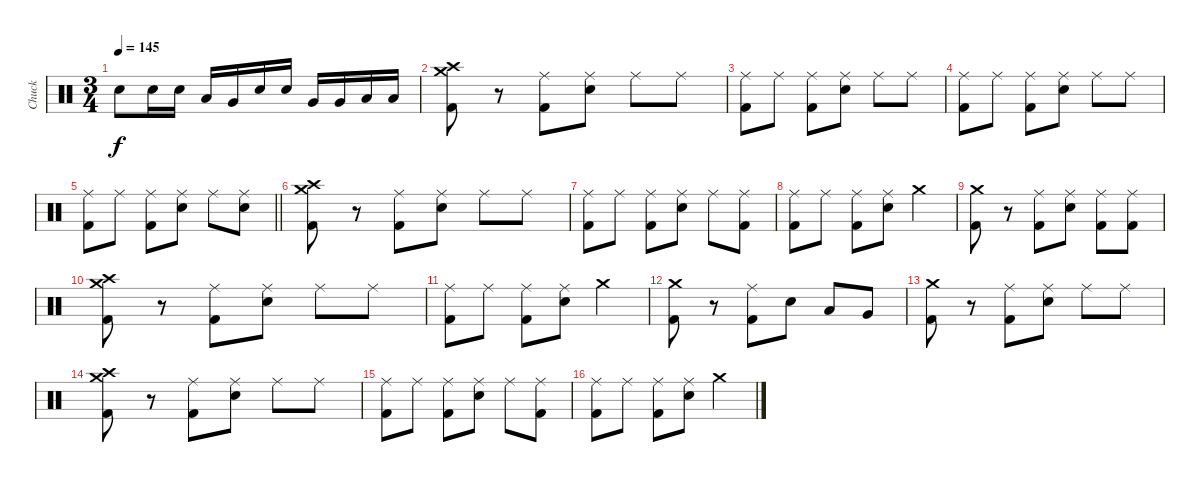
\track ("Chuck" "Chuck") {instrument percussion}
\staff {score}
\articulation defaults
\ts (3 4)
\tempo 145
\clef neutral
\ks c "Electric Snare (hit)".8{dy f} "Electric Snare (hit)".16 "Electric Snare (hit)".16 "Low Tom (hit)".16 "Very Low Tom (hit)".16 "Electric Snare (hit)".16 "Electric Snare (hit)".16 "Very Low Tom (hit)".16 "Very Low Tom (hit)".16 "Low Tom (hit)".16 "Low Tom (hit)".16
|
("Crash medium (hit)" "Crash high (hit)" "Kick (hit) 2").8 r.8 ("Ride (middle)" "Kick (hit) 2").8 ("Ride (middle)" "Electric Snare (hit)").8 "Ride (middle)".8 "Ride (middle)".8 |
("Ride (middle)" "Kick (hit) 2").8 "Ride (middle)".8 ("Ride (middle)" "Kick (hit) 2").8 ("Ride (middle)" "Electric Snare (hit)").8 "Ride (middle)".8 "Ride (middle)".8 |
("Ride (middle)" "Kick (hit) 2").8 "Ride (middle)".8 ("Ride (middle)" "Kick (hit) 2").8 ("Ride (middle)" "Electric Snare (hit)").8 "Ride (middle)".8 "Ride (middle)".8 |
\barLineRight lightlight
("Ride (middle)" "Kick (hit) 2").8 "Ride (middle)".8 ("Ride (middle)" "Kick (hit) 2").8 ("Ride (middle)" "Electric Snare (hit)").8 "Ride (middle)".8 ("Ride (middle)" "Electric Snare (hit)").8 |
("Crash medium (hit)" "Crash high (hit)" "Kick (hit) 2").8 r.8 ("Ride (middle)" "Kick (hit) 2").8 ("Ride (middle)" "Electric Snare (hit)").8 "Ride (middle)".8 "Ride (middle)".8 |
("Ride (middle)" "Kick (hit) 2").8 "Ride (middle)".8 ("Ride (middle)" "Kick (hit) 2").8 ("Ride (middle)" "Electric Snare (hit)").8 "Ride (middle)".8 ("Ride (middle)" "Kick (hit) 2").8 |
("Ride (middle)" "Kick (hit) 2").8 "Ride (middle)".8 ("Ride (middle)" "Kick (hit) 2").8 ("Ride (middle)" "Electric Snare (hit)").8 "Crash medium (hit)".4 |
("Crash medium (hit)" "Kick (hit) 2").8 r.8 ("Ride (middle)" "Kick (hit) 2").8 ("Ride (middle)" "Electric Snare (hit)").8 ("Ride (middle)" "Kick (hit) 2").8 ("Ride (middle)" "Kick (hit) 2").8 |
("Crash medium (hit)" "Crash high (hit)" "Kick (hit) 2").8 r.8 ("Ride (middle)" "Kick (hit) 2").8 ("Ride (middle)" "Electric Snare (hit)").8 "Ride (middle)".8 "Ride (middle)".8 |
("Ride (middle)" "Kick (hit) 2").8 "Ride (middle)".8 ("Ride (middle)" "Kick (hit) 2").8 ("Ride (middle)" "Electric Snare (hit)").8 "Crash medium (hit)".4 |
("Crash medium (hit)" "Kick (hit) 2").8 r.8 ("Ride (middle)" "Kick (hit) 2").8 "Electric Snare (hit)".8 "Low Tom (hit)".8 "Very Low Tom (hit)".8 |
("Crash medium (hit)" "Kick (hit) 2").8 r.8 ("Ride (middle)" "Kick (hit) 2").8 ("Ride (middle)" "Electric Snare (hit)").8 "Ride (middle)".8 "Ride (middle)".8 |
("Crash medium (hit)" "Crash high (hit)" "Kick (hit) 2").8 r.8 ("Ride (middle)" "Kick (hit) 2").8 ("Ride (middle)" "Electric Snare (hit)").8 "Ride (middle)".8 "Ride (middle)".8 |
("Ride (middle)" "Kick (hit) 2").8 "Ride (middle)".8 ("Ride (middle)" "Kick (hit) 2").8 ("Ride (middle)" "Electric Snare (hit)").8 "Ride (middle)".8 ("Ride (middle)" "Kick (hit) 2").8 |
("Ride (middle)" "Kick (hit) 2").8 "Ride (middle)".8 ("Ride (middle)" "Kick (hit) 2").8 ("Ride (middle)" "Electric Snare (hit)").8 "Crash medium (hit)".4
